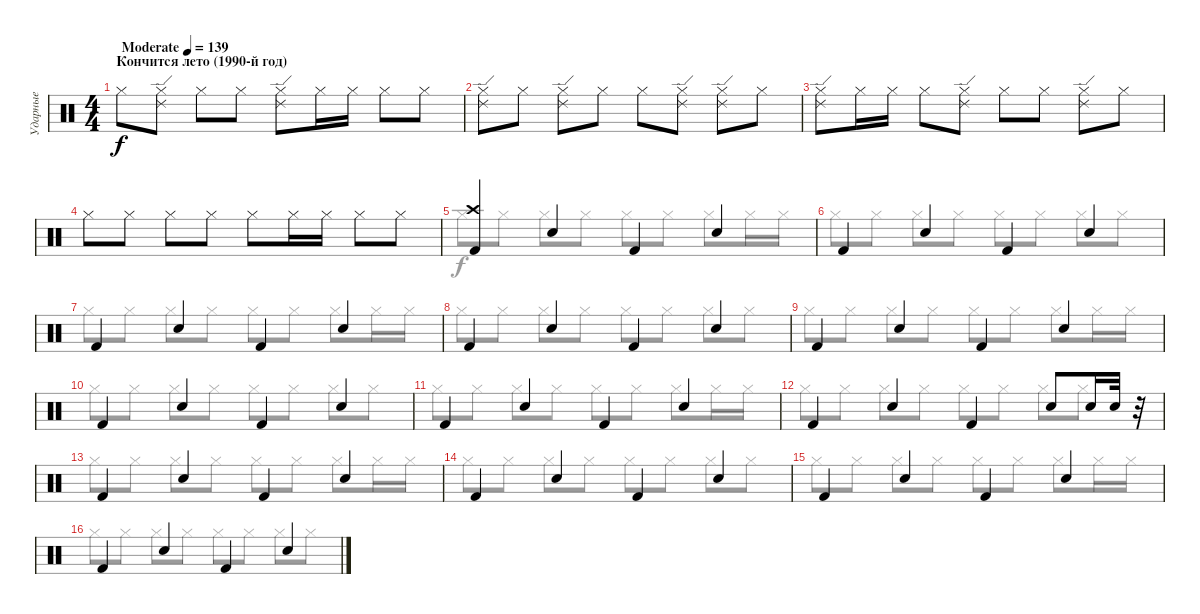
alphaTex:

\track ("Ударные" "Ударные") {instrument percussion}
\staff {score}
\articulation defaults
\voice
\ts (4 4)
\section ("" "Кончится лето (1990-й год)")
\tempo (139 "Moderate")
\clef neutral
\ks c "Hi-Hat (closed)".8{dy f}
("Hi-Hat (closed)" "Ride (edge) 2").8 "Hi-Hat (closed)".8 "Hi-Hat (closed)".8 ("Hi-Hat (closed)" "Ride (edge) 2").8 "Hi-Hat (closed)".16 "Hi-Hat (closed)".16 "Hi-Hat (closed)".8 "Hi-Hat (closed)".8 |
("Hi-Hat (closed)" "Ride (edge) 2").8 "Hi-Hat (closed)".8 ("Hi-Hat (closed)" "Ride (edge) 2").8 "Hi-Hat (closed)".8 "Hi-Hat (closed)".8 ("Hi-Hat (closed)" "Ride (edge) 2").8 ("Hi-Hat (closed)" "Ride (edge) 2").8 "Hi-Hat (closed)".8 |
("Hi-Hat (closed)" "Ride (edge) 2").8 "Hi-Hat (closed)".16 "Hi-Hat (closed)".16 "Hi-Hat (closed)".8 ("Hi-Hat (closed)" "Ride (edge) 2").8 "Hi-Hat (closed)".8 "Hi-Hat (closed)".8 ("Hi-Hat (closed)" "Ride (edge) 2").8 "Hi-Hat (closed)".8 |
"Hi-Hat (closed)".8 "Hi-Hat (closed)".8 "Hi-Hat (closed)".8 "Hi-Hat (closed)".8 "Hi-Hat (closed)".8 "Hi-Hat (closed)".16 "Hi-Hat (closed)".16 "Hi-Hat (closed)".8 "Hi-Hat (closed)".8 |
("Kick (hit) 2" "Crash high (hit)").4 "Snare (hit) 2".4 "Kick (hit) 2".4 "Snare (hit) 2".4 |
"Kick (hit) 2".4 "Snare (hit) 2".4 "Kick (hit) 2".4 "Snare (hit) 2".4 |
"Kick (hit) 2".4 "Snare (hit) 2".4 "Kick (hit) 2".4 "Snare (hit) 2".4 |
"Kick (hit) 2".4 "Snare (hit) 2".4 "Kick (hit) 2".4 "Snare (hit) 2".4 |
"Kick (hit) 2".4 "Snare (hit) 2".4 "Kick (hit) 2".4 "Snare (hit) 2".4 |
"Kick (hit) 2".4 "Snare (hit) 2".4 "Kick (hit) 2".4 "Snare (hit) 2".4 |
"Kick (hit) 2".4 "Snare (hit) 2".4 "Kick (hit) 2".4 "Snare (hit) 2".4 |
"Kick (hit) 2".4 "Snare (hit) 2".4 "Kick (hit) 2".4 "Snare (hit) 2".8 "Snare (hit) 2".16 "Snare (hit) 2".32 r.32 |
"Kick (hit) 2".4 "Snare (hit) 2".4 "Kick (hit) 2".4 "Snare (hit) 2".4 |
"Kick (hit) 2".4 "Snare (hit) 2".4 "Kick (hit) 2".4 "Snare (hit) 2".4 |
"Kick (hit) 2".4 "Snare (hit) 2".4 "Kick (hit) 2".4 "Snare (hit) 2".4 |
"Kick (hit) 2".4 "Snare (hit) 2".4 "Kick (hit) 2".4 "Snare (hit) 2".4
\voice
\clef neutral
\ottava regular
\simile none
\ks c
|
|
|
|
"Hi-Hat (closed)".8 "Hi-Hat (closed)".8 "Hi-Hat (closed)".8 "Hi-Hat (closed)".8 "Hi-Hat (closed)".8 "Hi-Hat (closed)".8 "Hi-Hat (closed)".8 "Hi-Hat (closed)".16 "Hi-Hat (closed)".16 |
"Hi-Hat (closed)".8 "Hi-Hat (closed)".8 "Hi-Hat (closed)".8 "Hi-Hat (closed)".8 "Hi-Hat (closed)".8 "Hi-Hat (closed)".8 "Hi-Hat (closed)".8 "Hi-Hat (closed)".8 |
"Hi-Hat (closed)".8 "Hi-Hat (closed)".8 "Hi-Hat (closed)".8 "Hi-Hat (closed)".8 "Hi-Hat (closed)".8 "Hi-Hat (closed)".8 "Hi-Hat (closed)".8 "Hi-Hat (closed)".16 "Hi-Hat (closed)".16 |
"Hi-Hat (closed)".8 "Hi-Hat (closed)".8 "Hi-Hat (closed)".8 "Hi-Hat (closed)".8 "Hi-Hat (closed)".8 "Hi-Hat (closed)".8 "Hi-Hat (closed)".8 "Hi-Hat (closed)".8 |
"Hi-Hat (closed)".8 "Hi-Hat (closed)".8 "Hi-Hat (closed)".8 "Hi-Hat (closed)".8 "Hi-Hat (closed)".8 "Hi-Hat (closed)".8 "Hi-Hat (closed)".8 "Hi-Hat (closed)".16 "Hi-Hat (closed)".16 |
"Hi-Hat (closed)".8 "Hi-Hat (closed)".8 "Hi-Hat (closed)".8 "Hi-Hat (closed)".8 "Hi-Hat (closed)".8 "Hi-Hat (closed)".8 "Hi-Hat (closed)".8 "Hi-Hat (closed)".8 |
"Hi-Hat (closed)".8 "Hi-Hat (closed)".8 "Hi-Hat (closed)".8 "Hi-Hat (closed)".8 "Hi-Hat (closed)".8 "Hi-Hat (closed)".8 "Hi-Hat (closed)".8 "Hi-Hat (closed)".16 "Hi-Hat (closed)".16 |
"Hi-Hat (closed)".8 "Hi-Hat (closed)".8 "Hi-Hat (closed)".8 "Hi-Hat (closed)".8 "Hi-Hat (closed)".8 "Hi-Hat (closed)".8 "Hi-Hat (closed)".8 "Hi-Hat (closed)".8 |
"Hi-Hat (closed)".8 "Hi-Hat (closed)".8 "Hi-Hat (closed)".8 "Hi-Hat (closed)".8 "Hi-Hat (closed)".8 "Hi-Hat (closed)".8 "Hi-Hat (closed)".8 "Hi-Hat (closed)".16 "Hi-Hat (closed)".16 |
"Hi-Hat (closed)".8 "Hi-Hat (closed)".8 "Hi-Hat (closed)".8 "Hi-Hat (closed)".8 "Hi-Hat (closed)".8 "Hi-Hat (closed)".8 "Hi-Hat (closed)".8 "Hi-Hat (closed)".8 |
"Hi-Hat (closed)".8 "Hi-Hat (closed)".8 "Hi-Hat (closed)".8 "Hi-Hat (closed)".8 "Hi-Hat (closed)".8 "Hi-Hat (closed)".8 "Hi-Hat (closed)".8 "Hi-Hat (closed)".16 "Hi-Hat (closed)".16 |
"Hi-Hat (closed)".8 "Hi-Hat (closed)".8 "Hi-Hat (closed)".8 "Hi-Hat (closed)".8 "Hi-Hat (closed)".8 "Hi-Hat (closed)".8 "Hi-Hat (closed)".8 "Hi-Hat (closed)".8
